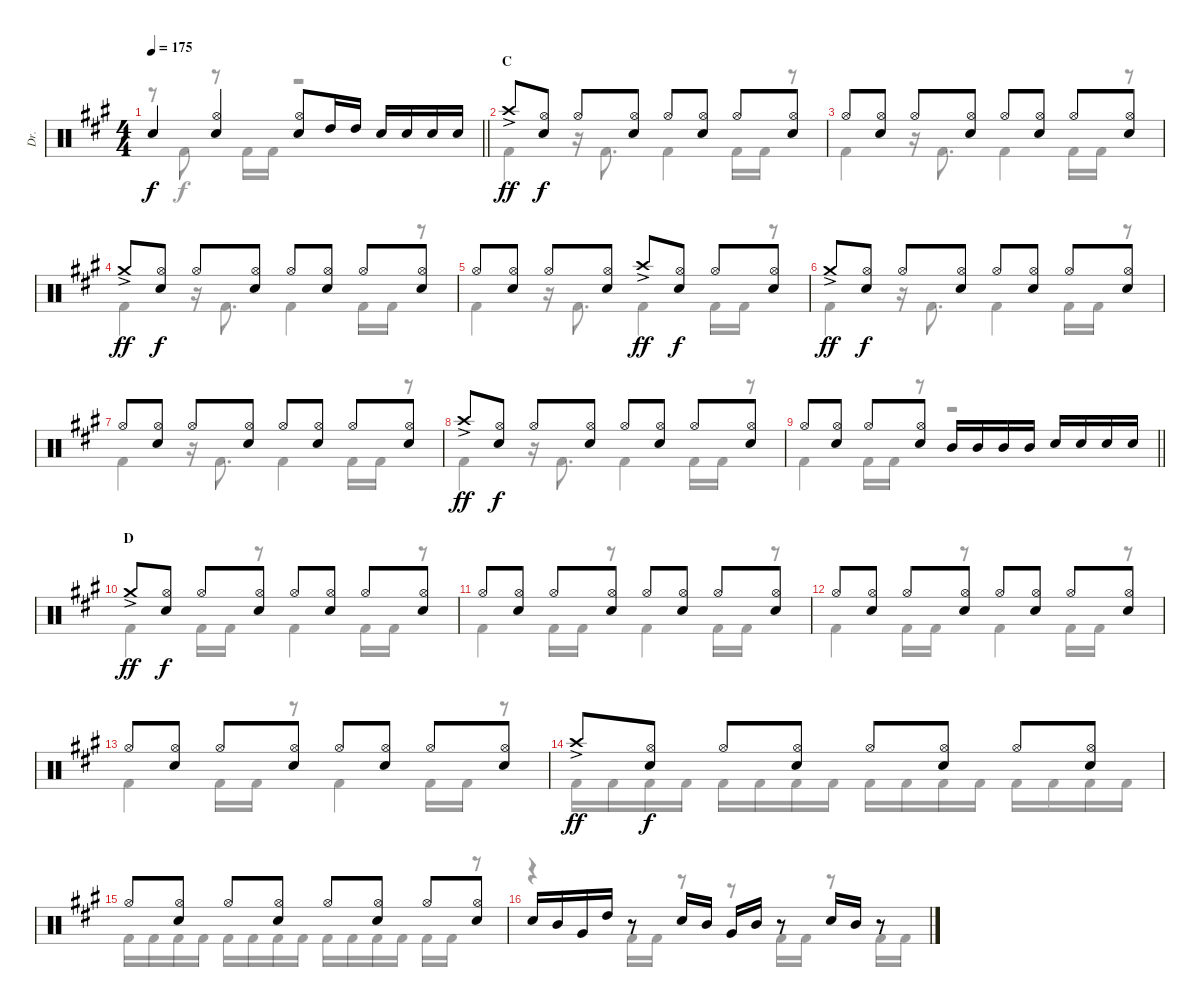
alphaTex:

\track ("Dr." "Dr.") {instrument percussion}
\staff {score}
\articulation defaults
\voice
\ts (4 4)
\tempo 175
\clef neutral
\barLineRight lightlight
\ks f#minor "Snare (hit)"{t}.4{dy f}
("Hi-Hat (open)" "Electric Snare (hit)").4 ("Hi-Hat (open)" "Electric Snare (hit)").8 "High Tom (hit)".16 "High Tom (hit)".16 "Electric Snare (hit)".16 "Electric Snare (hit)".16 "Electric Snare (hit)".16 "Electric Snare (hit)".16 |
\section ("" "C")
"Crash high (hit)"{ac}.8{dy ff} ("Hi-Hat (open)" "Electric Snare (hit)").8{dy f} "Hi-Hat (open)".8 ("Hi-Hat (open)" "Electric Snare (hit)").8 "Hi-Hat (open)".8 ("Hi-Hat (open)" "Electric Snare (hit)").8 "Hi-Hat (open)".8 ("Hi-Hat (open)" "Electric Snare (hit)").8 |
"Hi-Hat (open)".8 ("Hi-Hat (open)" "Electric Snare (hit)").8 "Hi-Hat (open)".8 ("Hi-Hat (open)" "Electric Snare (hit)").8 "Hi-Hat (open)".8 ("Hi-Hat (open)" "Electric Snare (hit)").8 "Hi-Hat (open)".8 ("Hi-Hat (open)" "Electric Snare (hit)").8 |
"Crash medium (hit)"{ac}.8{dy ff} ("Hi-Hat (open)" "Electric Snare (hit)").8{dy f} "Hi-Hat (open)".8 ("Hi-Hat (open)" "Electric Snare (hit)").8 "Hi-Hat (open)".8 ("Hi-Hat (open)" "Electric Snare (hit)").8 "Hi-Hat (open)".8 ("Hi-Hat (open)" "Electric Snare (hit)").8 |
"Hi-Hat (open)".8 ("Hi-Hat (open)" "Electric Snare (hit)").8 "Hi-Hat (open)".8 ("Hi-Hat (open)" "Electric Snare (hit)").8 "Crash high (hit)"{ac}.8{dy ff} ("Hi-Hat (open)" "Electric Snare (hit)").8{dy f} "Hi-Hat (open)".8 ("Hi-Hat (open)" "Electric Snare (hit)").8 |
"Crash medium (hit)"{ac}.8{dy ff} ("Hi-Hat (open)" "Electric Snare (hit)").8{dy f} "Hi-Hat (open)".8 ("Hi-Hat (open)" "Electric Snare (hit)").8 "Hi-Hat (open)".8 ("Hi-Hat (open)" "Electric Snare (hit)").8 "Hi-Hat (open)".8 ("Hi-Hat (open)" "Electric Snare (hit)").8 |
"Hi-Hat (open)".8 ("Hi-Hat (open)" "Electric Snare (hit)").8 "Hi-Hat (open)".8 ("Hi-Hat (open)" "Electric Snare (hit)").8 "Hi-Hat (open)".8 ("Hi-Hat (open)" "Electric Snare (hit)").8 "Hi-Hat (open)".8 ("Hi-Hat (open)" "Electric Snare (hit)").8 |
"Crash high (hit)"{ac}.8{dy ff} ("Hi-Hat (open)" "Electric Snare (hit)").8{dy f} "Hi-Hat (open)".8 ("Hi-Hat (open)" "Electric Snare (hit)").8 "Hi-Hat (open)".8 ("Hi-Hat (open)" "Electric Snare (hit)").8 "Hi-Hat (open)".8 ("Hi-Hat (open)" "Electric Snare (hit)").8 |
\barLineRight lightlight "Hi-Hat (open)".8
("Hi-Hat (open)" "Electric Snare (hit)").8 "Hi-Hat (open)".8 ("Hi-Hat (open)" "Electric Snare (hit)").8 "Mid Tom (hit)".16 "Mid Tom (hit)".16 "Mid Tom (hit)".16 "Mid Tom (hit)".16 "Electric Snare (hit)".16 "Electric Snare (hit)".16 "Electric Snare (hit)".16 "Electric Snare (hit)".16 |
\section ("" "D")
"Crash medium (hit)"{ac}.8{dy ff} ("Hi-Hat (open)" "Electric Snare (hit)").8{dy f} "Hi-Hat (open)".8 ("Hi-Hat (open)" "Electric Snare (hit)").8 "Hi-Hat (open)".8 ("Hi-Hat (open)" "Electric Snare (hit)").8 "Hi-Hat (open)".8 ("Hi-Hat (open)" "Electric Snare (hit)").8 |
"Hi-Hat (open)".8 ("Hi-Hat (open)" "Electric Snare (hit)").8 "Hi-Hat (open)".8 ("Hi-Hat (open)" "Electric Snare (hit)").8 "Hi-Hat (open)".8 ("Hi-Hat (open)" "Electric Snare (hit)").8 "Hi-Hat (open)".8 ("Hi-Hat (open)" "Electric Snare (hit)").8 |
"Hi-Hat (open)".8 ("Hi-Hat (open)" "Electric Snare (hit)").8 "Hi-Hat (open)".8 ("Hi-Hat (open)" "Electric Snare (hit)").8 "Hi-Hat (open)".8 ("Hi-Hat (open)" "Electric Snare (hit)").8 "Hi-Hat (open)".8 ("Hi-Hat (open)" "Electric Snare (hit)").8 |
"Hi-Hat (open)".8 ("Hi-Hat (open)" "Electric Snare (hit)").8 "Hi-Hat (open)".8 ("Hi-Hat (open)" "Electric Snare (hit)").8 "Hi-Hat (open)".8 ("Hi-Hat (open)" "Electric Snare (hit)").8 "Hi-Hat (open)".8 ("Hi-Hat (open)" "Electric Snare (hit)").8 |
"Crash high (hit)"{ac}.8{dy ff} ("Hi-Hat (open)" "Electric Snare (hit)").8{dy f} "Hi-Hat (open)".8 ("Hi-Hat (open)" "Electric Snare (hit)").8 "Hi-Hat (open)".8 ("Hi-Hat (open)" "Electric Snare (hit)").8 "Hi-Hat (open)".8 ("Hi-Hat (open)" "Electric Snare (hit)").8 |
"Hi-Hat (open)".8 ("Hi-Hat (open)" "Electric Snare (hit)").8 "Hi-Hat (open)".8 ("Hi-Hat (open)" "Electric Snare (hit)").8 "Hi-Hat (open)".8 ("Hi-Hat (open)" "Electric Snare (hit)").8 "Hi-Hat (open)".8 ("Hi-Hat (open)" "Electric Snare (hit)").8 |
"Electric Snare (hit)".16 "Mid Tom (hit)".16 "Very Low Tom (hit)".16 "High Tom (hit)".16 r.8 "Electric Snare (hit)".16 "Mid Tom (hit)".16 "Very Low Tom (hit)".16 "Mid Tom (hit)".16 r.8 "Electric Snare (hit)".16 "Mid Tom (hit)".16 r.8
\voice
\clef neutral
\ottava regular
\simile none
\barLineRight lightlight
\ks f#minor
r.8{dy f} "Kick (hit) 2".8 r.8 "Kick (hit) 2".16 "Kick (hit) 2".16 r.2 |
"Kick (hit) 2".4 r.16 "Kick (hit) 2".8{d} "Kick (hit) 2".4 "Kick (hit) 2".16 "Kick (hit) 2".16 r.8 |
"Kick (hit) 2".4 r.16 "Kick (hit) 2".8{d} "Kick (hit) 2".4 "Kick (hit) 2".16 "Kick (hit) 2".16 r.8 |
"Kick (hit) 2".4 r.16 "Kick (hit) 2".8{d} "Kick (hit) 2".4 "Kick (hit) 2".16 "Kick (hit) 2".16 r.8 |
"Kick (hit) 2".4 r.16 "Kick (hit) 2".8{d} "Kick (hit) 2".4 "Kick (hit) 2".16 "Kick (hit) 2".16 r.8 |
"Kick (hit) 2".4 r.16 "Kick (hit) 2".8{d} "Kick (hit) 2".4 "Kick (hit) 2".16 "Kick (hit) 2".16 r.8 |
"Kick (hit) 2".4 r.16 "Kick (hit) 2".8{d} "Kick (hit) 2".4 "Kick (hit) 2".16 "Kick (hit) 2".16 r.8 |
"Kick (hit) 2".4 r.16 "Kick (hit) 2".8{d} "Kick (hit) 2".4 "Kick (hit) 2".16 "Kick (hit) 2".16 r.8 |
\barLineRight lightlight "Kick (hit) 2".4 "Kick (hit) 2".16 "Kick (hit) 2".16
r.8 r.2 |
"Kick (hit) 2".4 "Kick (hit) 2".16 "Kick (hit) 2".16 r.8 "Kick (hit) 2".4 "Kick (hit) 2".16 "Kick (hit) 2".16 r.8 |
"Kick (hit) 2".4 "Kick (hit) 2".16 "Kick (hit) 2".16 r.8 "Kick (hit) 2".4 "Kick (hit) 2".16 "Kick (hit) 2".16 r.8 |
"Kick (hit) 2".4 "Kick (hit) 2".16 "Kick (hit) 2".16 r.8 "Kick (hit) 2".4 "Kick (hit) 2".16 "Kick (hit) 2".16 r.8 |
"Kick (hit) 2".4 "Kick (hit) 2".16 "Kick (hit) 2".16 r.8 "Kick (hit) 2".4 "Kick (hit) 2".16 "Kick (hit) 2".16 r.8 |
"Kick (hit) 2".16 "Kick (hit) 2".16 "Kick (hit) 2".16 "Kick (hit) 2".16 "Kick (hit) 2".16 "Kick (hit) 2".16 "Kick (hit) 2".16 "Kick (hit) 2".16 "Kick (hit) 2".16 "Kick (hit) 2".16 "Kick (hit) 2".16 "Kick (hit) 2".16 "Kick (hit) 2".16 "Kick (hit) 2".16 "Kick (hit) 2".16 "Kick (hit) 2".16 |
"Kick (hit) 2".16 "Kick (hit) 2".16 "Kick (hit) 2".16 "Kick (hit) 2".16 "Kick (hit) 2".16 "Kick (hit) 2".16 "Kick (hit) 2".16 "Kick (hit) 2".16 "Kick (hit) 2".16 "Kick (hit) 2".16 "Kick (hit) 2".16 "Kick (hit) 2".16 "Kick (hit) 2".16 "Kick (hit) 2".16 r.8 |
r.4 "Kick (hit) 2".16 "Kick (hit) 2".16 r.8 r.8 "Kick (hit) 2".16 "Kick (hit) 2".16 r.8 "Kick (hit) 2".16 "Kick (hit) 2".16
